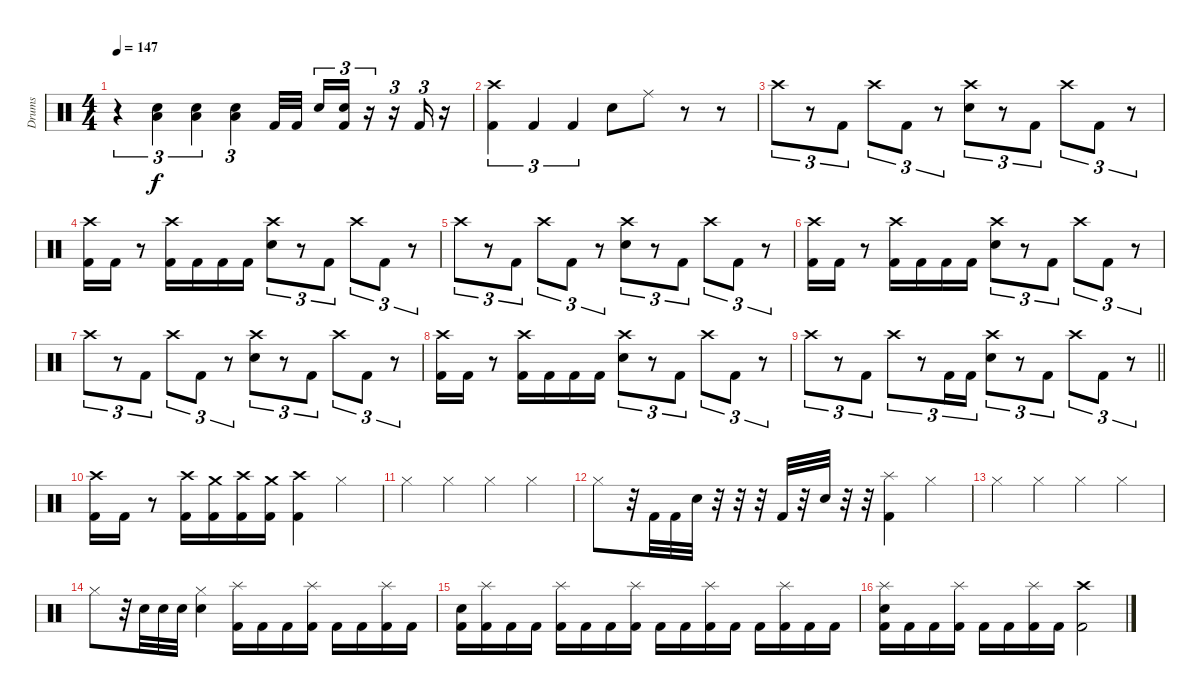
\track ("Drums" "Drums") {instrument percussion}
\staff {score}
\articulation defaults
\ts (4 4)
\section ("" "")
\tempo 147
\clef neutral
\ks c
r.4{tu (3 2) dy f} ("Electric Snare (hit)" "Low Floor Tom (hit)").4{tu (3 2)} ("Electric Snare (hit)" "Low Floor Tom (hit)").4{tu (3 2)} ("Electric Snare (hit)" "Low Floor Tom (hit)").4{tu (3 2)} "Kick (hit) 2".32 "Kick (hit) 2".32{beam splitsecondary} "Electric Snare (hit)".16{tu (3 2)} ("Electric Snare (hit)" "Kick (hit) 2").16{tu (3 2)} r.16{tu (3 2)} r.16{tu (3 2)} "Kick (hit) 2".16{tu (3 2)} r.16 |
("Crash high (hit)" "Kick (hit) 2").4{tu (3 2)} "Kick (hit) 2".4{tu (3 2)} "Kick (hit) 2".4{tu (3 2)} "Electric Snare (hit)".8 "Ride (middle)".8 r.8 r.8 |
"Crash high (hit)".8{tu (3 2)} r.8{tu (3 2)} "Kick (hit) 2".8{tu (3 2)} "Crash high (hit)".8{tu (3 2)} "Kick (hit) 2".8{tu (3 2)} r.8{tu (3 2)} ("Crash high (hit)" "Electric Snare (hit)").8{tu (3 2)} r.8{tu (3 2)} "Kick (hit) 2".8{tu (3 2)} "Crash high (hit)".8{tu (3 2)} "Kick (hit) 2".8{tu (3 2)} r.8{tu (3 2)} |
("Crash high (hit)" "Kick (hit) 2").16 "Kick (hit) 2".16 r.8 ("Crash high (hit)" "Kick (hit) 2").16 "Kick (hit) 2".16 "Kick (hit) 2".16 "Kick (hit) 2".16 ("Crash high (hit)" "Electric Snare (hit)").8{tu (3 2)} r.8{tu (3 2)} "Kick (hit) 2".8{tu (3 2)} "Crash high (hit)".8{tu (3 2)} "Kick (hit) 2".8{tu (3 2)} r.8{tu (3 2)} |
"Crash high (hit)".8{tu (3 2)} r.8{tu (3 2)} "Kick (hit) 2".8{tu (3 2)} "Crash high (hit)".8{tu (3 2)} "Kick (hit) 2".8{tu (3 2)} r.8{tu (3 2)} ("Crash high (hit)" "Electric Snare (hit)").8{tu (3 2)} r.8{tu (3 2)} "Kick (hit) 2".8{tu (3 2)} "Crash high (hit)".8{tu (3 2)} "Kick (hit) 2".8{tu (3 2)} r.8{tu (3 2)} |
("Crash high (hit)" "Kick (hit) 2").16 "Kick (hit) 2".16 r.8 ("Crash high (hit)" "Kick (hit) 2").16 "Kick (hit) 2".16 "Kick (hit) 2".16 "Kick (hit) 2".16 ("Crash high (hit)" "Electric Snare (hit)").8{tu (3 2)} r.8{tu (3 2)} "Kick (hit) 2".8{tu (3 2)} "Crash high (hit)".8{tu (3 2)} "Kick (hit) 2".8{tu (3 2)} r.8{tu (3 2)} |
"Crash high (hit)".8{tu (3 2)} r.8{tu (3 2)} "Kick (hit) 2".8{tu (3 2)} "Crash high (hit)".8{tu (3 2)} "Kick (hit) 2".8{tu (3 2)} r.8{tu (3 2)} ("Crash high (hit)" "Electric Snare (hit)").8{tu (3 2)} r.8{tu (3 2)} "Kick (hit) 2".8{tu (3 2)} "Crash high (hit)".8{tu (3 2)} "Kick (hit) 2".8{tu (3 2)} r.8{tu (3 2)} |
("Crash high (hit)" "Kick (hit) 2").16 "Kick (hit) 2".16 r.8 ("Crash high (hit)" "Kick (hit) 2").16 "Kick (hit) 2".16 "Kick (hit) 2".16 "Kick (hit) 2".16 ("Crash high (hit)" "Electric Snare (hit)").8{tu (3 2)} r.8{tu (3 2)} "Kick (hit) 2".8{tu (3 2)} "Crash high (hit)".8{tu (3 2)} "Kick (hit) 2".8{tu (3 2)} r.8{tu (3 2)} |
\barLineRight lightlight "Crash high (hit)".8{tu (3 2)}
r.8{tu (3 2)} "Kick (hit) 2".8{tu (3 2)} "Crash high (hit)".8{tu (3 2)} r.8{tu (3 2)} "Kick (hit) 2".16{tu (3 2)} "Kick (hit) 2".16{tu (3 2)} ("Crash high (hit)" "Electric Snare (hit)").8{tu (3 2)} r.8{tu (3 2)} "Kick (hit) 2".8{tu (3 2)} "Crash high (hit)".8{tu (3 2)} "Kick (hit) 2".8{tu (3 2)} r.8{tu (3 2)} |
\section ("" "")
("Crash high (hit)" "Kick (hit) 2").16 "Kick (hit) 2".16 r.8 ("Crash high (hit)" "Kick (hit) 2").16 ("Crash medium (hit)" "Kick (hit) 2").16 ("Crash high (hit)" "Kick (hit) 2").16 ("Crash medium (hit)" "Kick (hit) 2").16 ("Crash high (hit)" "Kick (hit) 2").4 "Hi-Hat (closed)".4 |
"Hi-Hat (closed)".4 "Hi-Hat (closed)".4 "Hi-Hat (closed)".4 "Hi-Hat (closed)".4 |
"Hi-Hat (closed)".8 r.32 "Kick (hit) 2".32 "Kick (hit) 2".32 "Electric Snare (hit)".32 r.32 r.32 r.32 "Kick (hit) 2".32 r.32 "Electric Snare (hit)".32 r.32 r.32 ("Splash (hit)" "Kick (hit) 2").4 "Hi-Hat (closed)".4 |
"Hi-Hat (closed)".4 "Hi-Hat (closed)".4 "Hi-Hat (closed)".4 "Hi-Hat (closed)".4 |
"Hi-Hat (closed)".8 r.32 "Electric Snare (hit)".32 "Electric Snare (hit)".32 "Electric Snare (hit)".32 ("Hi-Hat (closed)" "Electric Snare (hit)").4 ("Splash (hit)" "Kick (hit) 2").16 "Kick (hit) 2".16 "Kick (hit) 2".16 ("Splash (hit)" "Kick (hit) 2").16 "Kick (hit) 2".16 "Kick (hit) 2".16 ("Splash (hit)" "Kick (hit) 2").16 "Kick (hit) 2".16 |
("Electric Snare (hit)" "Kick (hit) 2").16 ("Splash (hit)" "Kick (hit) 2").16 "Kick (hit) 2".16 "Kick (hit) 2".16 ("Splash (hit)" "Kick (hit) 2").16 "Kick (hit) 2".16 "Kick (hit) 2".16 ("Splash (hit)" "Kick (hit) 2").16 "Kick (hit) 2".16 "Kick (hit) 2".16 ("Splash (hit)" "Kick (hit) 2").16 "Kick (hit) 2".16 "Kick (hit) 2".16 ("Splash (hit)" "Kick (hit) 2").16 "Kick (hit) 2".16 "Kick (hit) 2".16 |
("Splash (hit)" "Electric Snare (hit)" "Kick (hit) 2").16 "Kick (hit) 2".16 "Kick (hit) 2".16 ("Splash (hit)" "Kick (hit) 2").16 "Kick (hit) 2".16 "Kick (hit) 2".16 ("Splash (hit)" "Kick (hit) 2").16 "Kick (hit) 2".16 ("Crash high (hit)" "Kick (hit) 2").2
